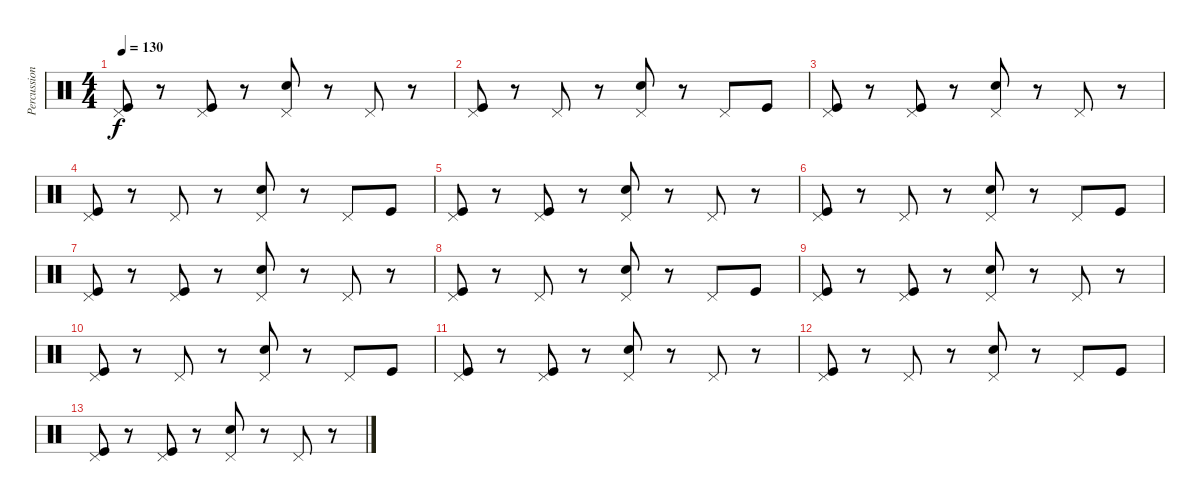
\track ("Percussioni" "Percussion") {instrument percussion}
\staff {score}
\articulation defaults
\ts (4 4)
\tempo 130
\clef neutral
\ks c
("Pedal Hi-Hat (hit)" "Kick (hit)").8{dy f} r.8 ("Kick (hit)" "Pedal Hi-Hat (hit)").8 r.8 ("Snare (hit) 2" "Pedal Hi-Hat (hit)").8 r.8 "Pedal Hi-Hat (hit)".8 r.8 |
("Kick (hit)" "Pedal Hi-Hat (hit)").8 r.8 "Pedal Hi-Hat (hit)".8 r.8 ("Snare (hit) 2" "Pedal Hi-Hat (hit)").8 r.8 "Pedal Hi-Hat (hit)".8 "Kick (hit)".8 |
("Pedal Hi-Hat (hit)" "Kick (hit)").8 r.8 ("Kick (hit)" "Pedal Hi-Hat (hit)").8 r.8 ("Snare (hit) 2" "Pedal Hi-Hat (hit)").8 r.8 "Pedal Hi-Hat (hit)".8 r.8 |
("Kick (hit)" "Pedal Hi-Hat (hit)").8 r.8 "Pedal Hi-Hat (hit)".8 r.8 ("Snare (hit) 2" "Pedal Hi-Hat (hit)").8 r.8 "Pedal Hi-Hat (hit)".8 "Kick (hit)".8 |
("Pedal Hi-Hat (hit)" "Kick (hit)").8 r.8 ("Kick (hit)" "Pedal Hi-Hat (hit)").8 r.8 ("Snare (hit) 2" "Pedal Hi-Hat (hit)").8 r.8 "Pedal Hi-Hat (hit)".8 r.8 |
("Kick (hit)" "Pedal Hi-Hat (hit)").8 r.8 "Pedal Hi-Hat (hit)".8 r.8 ("Snare (hit) 2" "Pedal Hi-Hat (hit)").8 r.8 "Pedal Hi-Hat (hit)".8 "Kick (hit)".8 |
("Pedal Hi-Hat (hit)" "Kick (hit)").8 r.8 ("Kick (hit)" "Pedal Hi-Hat (hit)").8 r.8 ("Snare (hit) 2" "Pedal Hi-Hat (hit)").8 r.8 "Pedal Hi-Hat (hit)".8 r.8 |
("Kick (hit)" "Pedal Hi-Hat (hit)").8 r.8 "Pedal Hi-Hat (hit)".8 r.8 ("Snare (hit) 2" "Pedal Hi-Hat (hit)").8 r.8 "Pedal Hi-Hat (hit)".8 "Kick (hit)".8 |
("Pedal Hi-Hat (hit)" "Kick (hit)").8 r.8 ("Kick (hit)" "Pedal Hi-Hat (hit)").8 r.8 ("Snare (hit) 2" "Pedal Hi-Hat (hit)").8 r.8 "Pedal Hi-Hat (hit)".8 r.8 |
("Kick (hit)" "Pedal Hi-Hat (hit)").8 r.8 "Pedal Hi-Hat (hit)".8 r.8 ("Snare (hit) 2" "Pedal Hi-Hat (hit)").8 r.8 "Pedal Hi-Hat (hit)".8 "Kick (hit)".8 |
("Pedal Hi-Hat (hit)" "Kick (hit)").8 r.8 ("Kick (hit)" "Pedal Hi-Hat (hit)").8 r.8 ("Snare (hit) 2" "Pedal Hi-Hat (hit)").8 r.8 "Pedal Hi-Hat (hit)".8 r.8 |
("Kick (hit)" "Pedal Hi-Hat (hit)").8 r.8 "Pedal Hi-Hat (hit)".8 r.8 ("Snare (hit) 2" "Pedal Hi-Hat (hit)").8 r.8 "Pedal Hi-Hat (hit)".8 "Kick (hit)".8 |
("Pedal Hi-Hat (hit)" "Kick (hit)").8 r.8 ("Kick (hit)" "Pedal Hi-Hat (hit)").8 r.8 ("Snare (hit) 2" "Pedal Hi-Hat (hit)").8 r.8 "Pedal Hi-Hat (hit)".8 r.8
